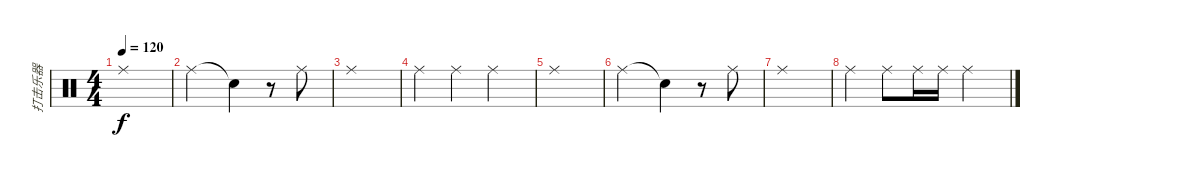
\track ("打击乐器" "打击乐器") {instrument percussion}
\staff {score}
\articulation defaults
\ts (4 4)
\tempo 120
\clef neutral
\ks c "Ride (middle)".1{dy f}
|
"Ride (middle)".2 "Snare (hit)"{t}.4 r.8 "Ride (middle)".8 |
"Ride (middle)".1 |
"Ride (middle)".4 "Ride (middle)".4 "Ride (middle)".2 |
"Ride (middle)".1 |
"Ride (middle)".2 "Snare (hit)"{t}.4 r.8 "Ride (middle)".8 |
"Ride (middle)".1 |
"Ride (middle)".4 "Ride (middle)".8 "Ride (middle)".16 "Ride (middle)".16 "Ride (middle)".2
